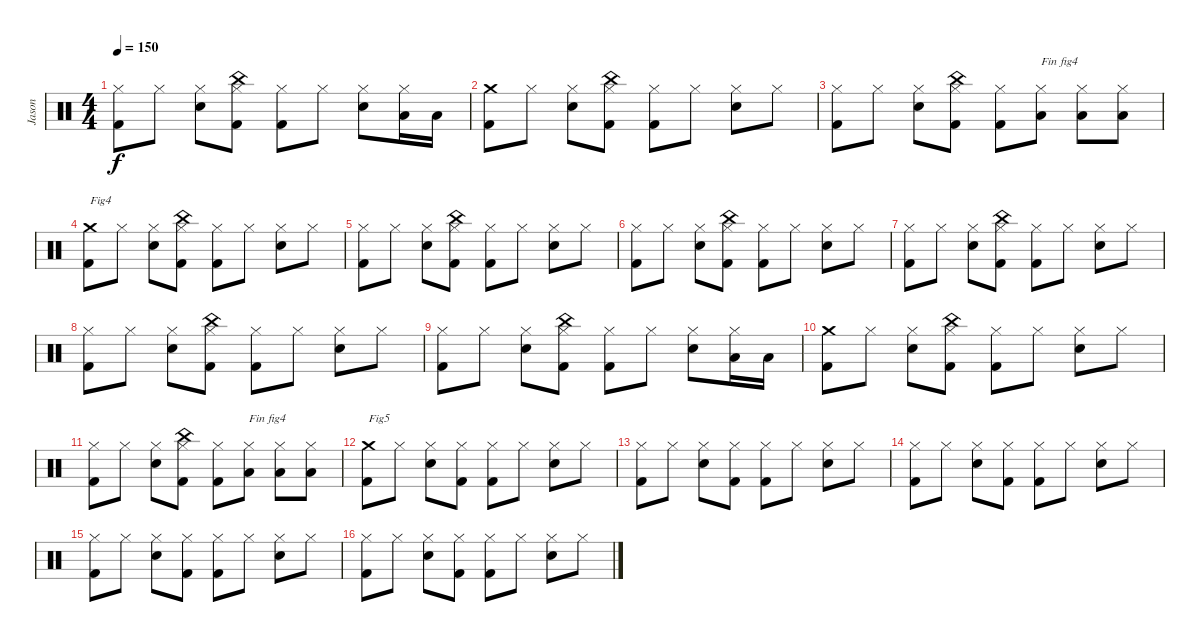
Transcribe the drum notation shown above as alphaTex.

\track ("Jason" "Jason") {instrument percussion}
\staff {score}
\articulation defaults
\ts (4 4)
\tempo 150
\clef neutral
\ks c
("Kick (hit) 2" "Hi-Hat (closed)").8{dy f} "Hi-Hat (closed)".8 ("Electric Snare (hit)" "Hi-Hat (closed)").8 ("Kick (hit) 2" "China (hit)" "Hi-Hat (closed)").8 ("Kick (hit) 2" "Hi-Hat (closed)").8 "Hi-Hat (closed)".8 ("Electric Snare (hit)" "Hi-Hat (closed)").8 ("Low Tom (hit)" "Hi-Hat (closed)").16 "Low Tom (hit)".16 |
("Kick (hit) 2" "Crash medium (hit)").8 "Hi-Hat (closed)".8 ("Electric Snare (hit)" "Hi-Hat (closed)").8 ("Kick (hit) 2" "China (hit)" "Hi-Hat (closed)").8 ("Kick (hit) 2" "Hi-Hat (closed)").8 "Hi-Hat (closed)".8 ("Electric Snare (hit)" "Hi-Hat (closed)").8 "Hi-Hat (closed)".8 |
("Kick (hit) 2" "Hi-Hat (closed)").8 "Hi-Hat (closed)".8 ("Electric Snare (hit)" "Hi-Hat (closed)").8 ("Kick (hit) 2" "China (hit)" "Hi-Hat (closed)").8 ("Kick (hit) 2" "Hi-Hat (closed)").8 ("Low Tom (hit)" "Hi-Hat (closed)").8{txt "Fin fig4"} ("Low Tom (hit)" "Hi-Hat (closed)").8 ("Low Tom (hit)" "Hi-Hat (closed)").8 |
("Kick (hit) 2" "Crash medium (hit)").8{txt "Fig4"} "Hi-Hat (closed)".8 ("Electric Snare (hit)" "Hi-Hat (closed)").8 ("Kick (hit) 2" "China (hit)" "Hi-Hat (closed)").8 ("Kick (hit) 2" "Hi-Hat (closed)").8 "Hi-Hat (closed)".8 ("Electric Snare (hit)" "Hi-Hat (closed)").8 "Hi-Hat (closed)".8 |
("Kick (hit) 2" "Hi-Hat (closed)").8 "Hi-Hat (closed)".8 ("Electric Snare (hit)" "Hi-Hat (closed)").8 ("Kick (hit) 2" "China (hit)" "Hi-Hat (closed)").8 ("Kick (hit) 2" "Hi-Hat (closed)").8 "Hi-Hat (closed)".8 ("Electric Snare (hit)" "Hi-Hat (closed)").8 "Hi-Hat (closed)".8 |
("Kick (hit) 2" "Hi-Hat (closed)").8 "Hi-Hat (closed)".8 ("Electric Snare (hit)" "Hi-Hat (closed)").8 ("Kick (hit) 2" "China (hit)" "Hi-Hat (closed)").8 ("Kick (hit) 2" "Hi-Hat (closed)").8 "Hi-Hat (closed)".8 ("Electric Snare (hit)" "Hi-Hat (closed)").8 "Hi-Hat (closed)".8 |
("Kick (hit) 2" "Hi-Hat (closed)").8 "Hi-Hat (closed)".8 ("Electric Snare (hit)" "Hi-Hat (closed)").8 ("Kick (hit) 2" "China (hit)" "Hi-Hat (closed)").8 ("Kick (hit) 2" "Hi-Hat (closed)").8 "Hi-Hat (closed)".8 ("Electric Snare (hit)" "Hi-Hat (closed)").8 "Hi-Hat (closed)".8 |
("Kick (hit) 2" "Hi-Hat (closed)").8 "Hi-Hat (closed)".8 ("Electric Snare (hit)" "Hi-Hat (closed)").8 ("Kick (hit) 2" "China (hit)" "Hi-Hat (closed)").8 ("Kick (hit) 2" "Hi-Hat (closed)").8 "Hi-Hat (closed)".8 ("Electric Snare (hit)" "Hi-Hat (closed)").8 "Hi-Hat (closed)".8 |
("Kick (hit) 2" "Hi-Hat (closed)").8 "Hi-Hat (closed)".8 ("Electric Snare (hit)" "Hi-Hat (closed)").8 ("Kick (hit) 2" "China (hit)" "Hi-Hat (closed)").8 ("Kick (hit) 2" "Hi-Hat (closed)").8 "Hi-Hat (closed)".8 ("Electric Snare (hit)" "Hi-Hat (closed)").8 ("Low Tom (hit)" "Hi-Hat (closed)").16 "Low Tom (hit)".16 |
("Kick (hit) 2" "Crash medium (hit)").8 "Hi-Hat (closed)".8 ("Electric Snare (hit)" "Hi-Hat (closed)").8 ("Kick (hit) 2" "China (hit)" "Hi-Hat (closed)").8 ("Kick (hit) 2" "Hi-Hat (closed)").8 "Hi-Hat (closed)".8 ("Electric Snare (hit)" "Hi-Hat (closed)").8 "Hi-Hat (closed)".8 |
("Kick (hit) 2" "Hi-Hat (closed)").8 "Hi-Hat (closed)".8 ("Electric Snare (hit)" "Hi-Hat (closed)").8 ("Kick (hit) 2" "China (hit)" "Hi-Hat (closed)").8 ("Kick (hit) 2" "Hi-Hat (closed)").8 ("Low Tom (hit)" "Hi-Hat (closed)").8{txt "Fin fig4"} ("Low Tom (hit)" "Hi-Hat (closed)").8 ("Low Tom (hit)" "Hi-Hat (closed)").8 |
("Kick (hit) 2" "Crash medium (hit)").8{txt "Fig5"} "Hi-Hat (closed)".8 ("Electric Snare (hit)" "Hi-Hat (closed)").8 ("Kick (hit) 2" "Hi-Hat (closed)").8 ("Kick (hit) 2" "Hi-Hat (closed)").8 "Hi-Hat (closed)".8 ("Electric Snare (hit)" "Hi-Hat (closed)").8 "Hi-Hat (closed)".8 |
("Kick (hit) 2" "Hi-Hat (closed)").8 "Hi-Hat (closed)".8 ("Electric Snare (hit)" "Hi-Hat (closed)").8 ("Kick (hit) 2" "Hi-Hat (closed)").8 ("Kick (hit) 2" "Hi-Hat (closed)").8 "Hi-Hat (closed)".8 ("Electric Snare (hit)" "Hi-Hat (closed)").8 "Hi-Hat (closed)".8 |
("Kick (hit) 2" "Hi-Hat (closed)").8 "Hi-Hat (closed)".8 ("Electric Snare (hit)" "Hi-Hat (closed)").8 ("Kick (hit) 2" "Hi-Hat (closed)").8 ("Kick (hit) 2" "Hi-Hat (closed)").8 "Hi-Hat (closed)".8 ("Electric Snare (hit)" "Hi-Hat (closed)").8 "Hi-Hat (closed)".8 |
("Kick (hit) 2" "Hi-Hat (closed)").8 "Hi-Hat (closed)".8 ("Electric Snare (hit)" "Hi-Hat (closed)").8 ("Kick (hit) 2" "Hi-Hat (closed)").8 ("Kick (hit) 2" "Hi-Hat (closed)").8 "Hi-Hat (closed)".8 ("Electric Snare (hit)" "Hi-Hat (closed)").8 "Hi-Hat (closed)".8 |
("Kick (hit) 2" "Hi-Hat (closed)").8 "Hi-Hat (closed)".8 ("Electric Snare (hit)" "Hi-Hat (closed)").8 ("Kick (hit) 2" "Hi-Hat (closed)").8 ("Kick (hit) 2" "Hi-Hat (closed)").8 "Hi-Hat (closed)".8 ("Electric Snare (hit)" "Hi-Hat (closed)").8 "Hi-Hat (closed)".8
